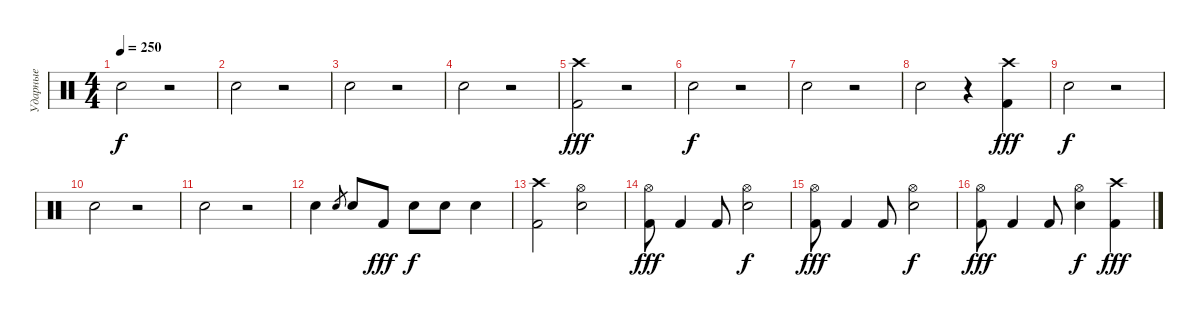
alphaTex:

\track ("Ударные" "Ударные") {instrument percussion}
\staff {score}
\articulation defaults
\ts (4 4)
\tempo 250
\clef neutral
\ks c "Snare (hit) 2".2{dy f}
r.2 |
"Snare (hit) 2".2 r.2 |
"Snare (hit) 2".2 r.2 |
"Snare (hit) 2".2 r.2 |
("Kick (hit) 2" "Crash high (hit)").2{dy fff} r.2 |
"Snare (hit) 2".2{dy f} r.2 |
"Snare (hit) 2".2 r.2 |
"Snare (hit) 2".2 r.4 ("Kick (hit) 2" "Crash high (hit)").4{dy fff} |
"Snare (hit) 2".2{dy f} r.2 |
"Snare (hit) 2".2 r.2 |
"Snare (hit) 2".2 r.2 |
"Snare (hit) 2".4 "Snare (hit) 2".8{gr} "Snare (hit) 2".8 "Kick (hit) 2".8{dy fff} "Snare (hit) 2".8{dy f} "Snare (hit) 2".8 "Snare (hit) 2".4 |
("Kick (hit) 2" "Crash high (hit)").2 ("Snare (hit) 2" "Hi-Hat (open)").2 |
("Kick (hit) 2" "Hi-Hat (open)").8{dy fff} "Kick (hit) 2".4 "Kick (hit) 2".8 ("Snare (hit) 2" "Hi-Hat (open)").2{dy f} |
("Kick (hit) 2" "Hi-Hat (open)").8{dy fff} "Kick (hit) 2".4 "Kick (hit) 2".8 ("Snare (hit) 2" "Hi-Hat (open)").2{dy f} |
("Kick (hit) 2" "Hi-Hat (open)").8{dy fff} "Kick (hit) 2".4 "Kick (hit) 2".8 ("Snare (hit) 2" "Hi-Hat (open)").4{dy f} ("Kick (hit) 2" "Crash high (hit)").4{dy fff}
